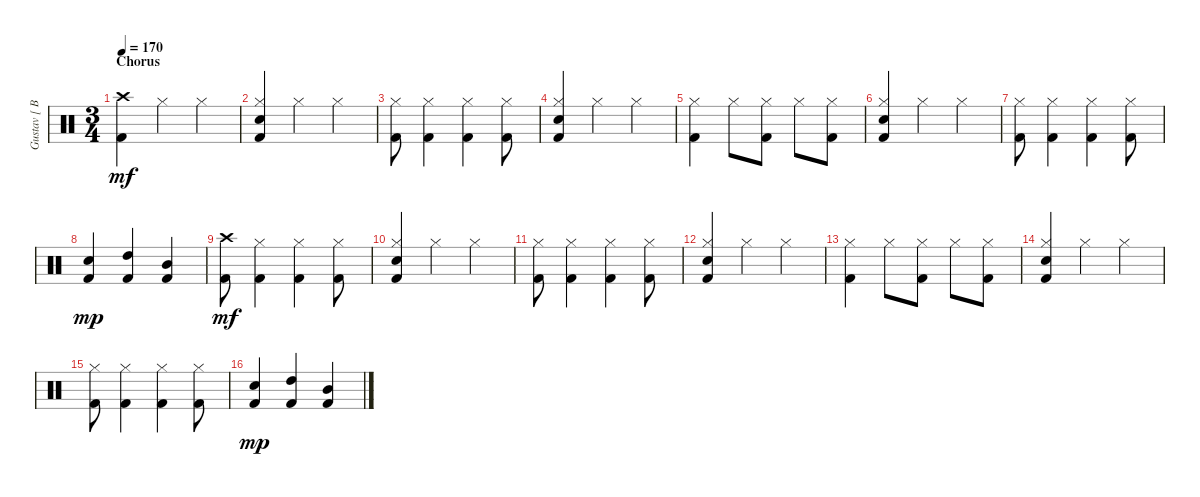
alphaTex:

\track ("Gustav [ Batterie ]" "Gustav [ B") {instrument percussion}
\staff {score}
\articulation defaults
\ts (3 4)
\section ("" "Chorus")
\tempo 170
\clef neutral
\ks c
("Crash high (hit)" "Kick (hit) 2").4{dy mf} "Hi-Hat (closed)".4 "Hi-Hat (closed)".4 |
("Hi-Hat (closed)" "Snare (hit) 2" "Kick (hit) 2").4 "Hi-Hat (closed)".4 "Hi-Hat (closed)".4 |
("Hi-Hat (closed)" "Kick (hit) 2").8 ("Hi-Hat (closed)" "Kick (hit) 2").4 ("Hi-Hat (closed)" "Kick (hit) 2").4 ("Hi-Hat (closed)" "Kick (hit) 2").8 |
("Hi-Hat (closed)" "Snare (hit) 2" "Kick (hit) 2").4 "Hi-Hat (closed)".4 "Hi-Hat (closed)".4 |
("Hi-Hat (closed)" "Kick (hit) 2").4 "Hi-Hat (closed)".8 ("Hi-Hat (closed)" "Kick (hit) 2").8 "Hi-Hat (closed)".8 ("Hi-Hat (closed)" "Kick (hit) 2").8 |
("Hi-Hat (closed)" "Snare (hit) 2" "Kick (hit) 2").4 "Hi-Hat (closed)".4 "Hi-Hat (closed)".4 |
("Hi-Hat (closed)" "Kick (hit) 2").8 ("Hi-Hat (closed)" "Kick (hit) 2").4 ("Hi-Hat (closed)" "Kick (hit) 2").4 ("Hi-Hat (closed)" "Kick (hit) 2").8 |
("Snare (hit) 2" "Kick (hit) 2").4{dy mp} ("High Tom (hit)" "Kick (hit) 2").4 ("Mid Tom (hit)" "Kick (hit) 2").4 |
("Crash high (hit)" "Kick (hit) 2").8{dy mf} ("Hi-Hat (closed)" "Kick (hit) 2").4 ("Hi-Hat (closed)" "Kick (hit) 2").4 ("Hi-Hat (closed)" "Kick (hit) 2").8 |
("Hi-Hat (closed)" "Snare (hit) 2" "Kick (hit) 2").4 "Hi-Hat (closed)".4 "Hi-Hat (closed)".4 |
("Hi-Hat (closed)" "Kick (hit) 2").8 ("Hi-Hat (closed)" "Kick (hit) 2").4 ("Hi-Hat (closed)" "Kick (hit) 2").4 ("Hi-Hat (closed)" "Kick (hit) 2").8 |
("Hi-Hat (closed)" "Snare (hit) 2" "Kick (hit) 2").4 "Hi-Hat (closed)".4 "Hi-Hat (closed)".4 |
("Hi-Hat (closed)" "Kick (hit) 2").4 "Hi-Hat (closed)".8 ("Hi-Hat (closed)" "Kick (hit) 2").8 "Hi-Hat (closed)".8 ("Hi-Hat (closed)" "Kick (hit) 2").8 |
("Hi-Hat (closed)" "Snare (hit) 2" "Kick (hit) 2").4 "Hi-Hat (closed)".4 "Hi-Hat (closed)".4 |
("Hi-Hat (closed)" "Kick (hit) 2").8 ("Hi-Hat (closed)" "Kick (hit) 2").4 ("Hi-Hat (closed)" "Kick (hit) 2").4 ("Hi-Hat (closed)" "Kick (hit) 2").8 |
("Snare (hit) 2" "Kick (hit) 2").4{dy mp} ("High Tom (hit)" "Kick (hit) 2").4 ("Mid Tom (hit)" "Kick (hit) 2").4
